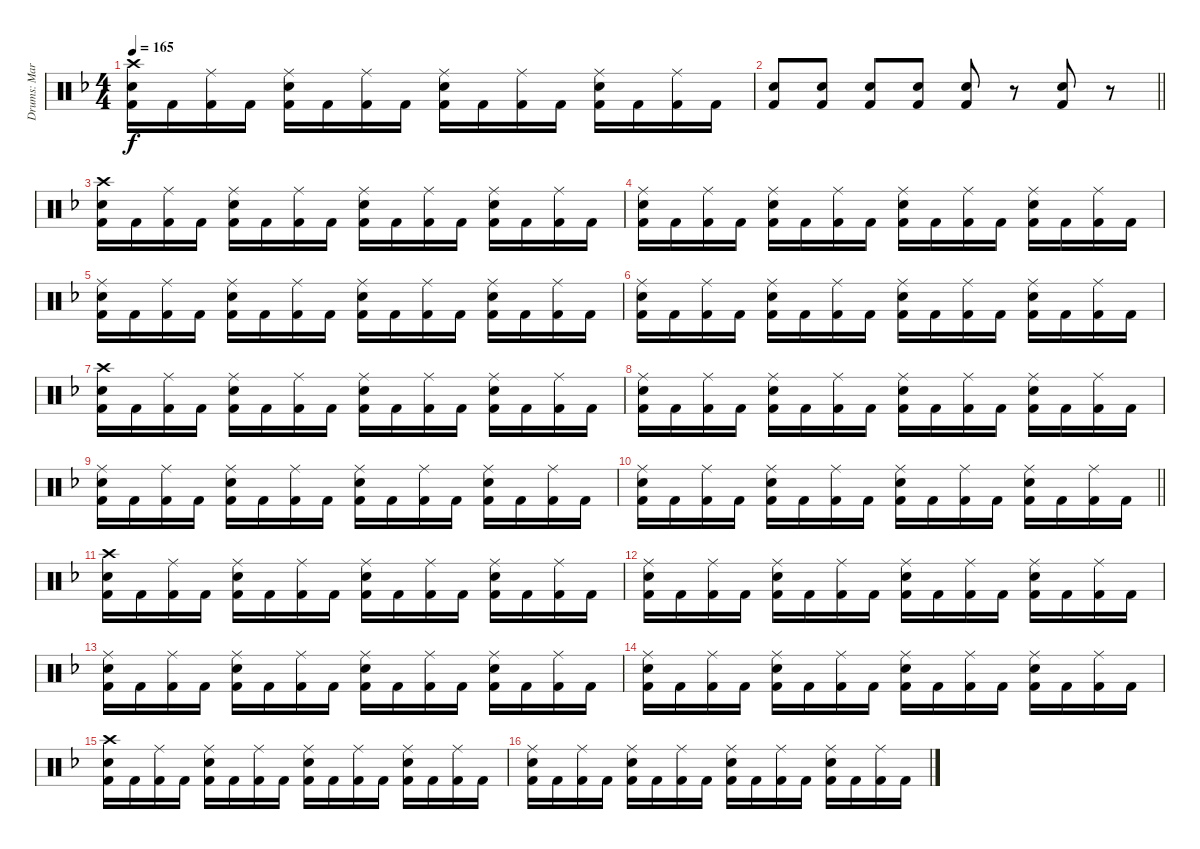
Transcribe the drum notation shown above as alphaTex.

\track ("Drums: Martin Herzinger" "Drums: Mar") {instrument percussion}
\staff {score}
\articulation defaults
\ts (4 4)
\tempo 165
\clef neutral
\ks dminor
("Crash high (hit)" "Snare (hit) 2" "Kick (hit) 2").16{dy f} "Kick (hit) 2".16 ("Ride (middle)" "Kick (hit) 2").16 "Kick (hit) 2".16 ("Ride (middle)" "Snare (hit) 2" "Kick (hit) 2").16 "Kick (hit) 2".16 ("Ride (middle)" "Kick (hit) 2").16 "Kick (hit) 2".16 ("Ride (middle)" "Snare (hit) 2" "Kick (hit) 2").16 "Kick (hit) 2".16 ("Ride (middle)" "Kick (hit) 2").16 "Kick (hit) 2".16 ("Ride (middle)" "Snare (hit) 2" "Kick (hit) 2").16 "Kick (hit) 2".16 ("Ride (middle)" "Kick (hit) 2").16 "Kick (hit) 2".16 |
\barLineRight lightlight
("Snare (hit) 2" "Kick (hit) 2").8 ("Snare (hit) 2" "Kick (hit) 2").8 ("Snare (hit) 2" "Kick (hit) 2").8 ("Snare (hit) 2" "Kick (hit) 2").8 ("Snare (hit) 2" "Kick (hit) 2").8 r.8 ("Snare (hit) 2" "Kick (hit) 2").8 r.8 |
("Crash high (hit)" "Snare (hit) 2" "Kick (hit) 2").16 "Kick (hit) 2".16 ("Ride (middle)" "Kick (hit) 2").16 "Kick (hit) 2".16 ("Ride (middle)" "Snare (hit) 2" "Kick (hit) 2").16 "Kick (hit) 2".16 ("Ride (middle)" "Kick (hit) 2").16 "Kick (hit) 2".16 ("Ride (middle)" "Snare (hit) 2" "Kick (hit) 2").16 "Kick (hit) 2".16 ("Ride (middle)" "Kick (hit) 2").16 "Kick (hit) 2".16 ("Ride (middle)" "Snare (hit) 2" "Kick (hit) 2").16 "Kick (hit) 2".16 ("Ride (middle)" "Kick (hit) 2").16 "Kick (hit) 2".16 |
("Ride (middle)" "Snare (hit) 2" "Kick (hit) 2").16 "Kick (hit) 2".16 ("Ride (middle)" "Kick (hit) 2").16 "Kick (hit) 2".16 ("Ride (middle)" "Snare (hit) 2" "Kick (hit) 2").16 "Kick (hit) 2".16 ("Ride (middle)" "Kick (hit) 2").16 "Kick (hit) 2".16 ("Ride (middle)" "Snare (hit) 2" "Kick (hit) 2").16 "Kick (hit) 2".16 ("Ride (middle)" "Kick (hit) 2").16 "Kick (hit) 2".16 ("Ride (middle)" "Snare (hit) 2" "Kick (hit) 2").16 "Kick (hit) 2".16 ("Ride (middle)" "Kick (hit) 2").16 "Kick (hit) 2".16 |
("Ride (middle)" "Snare (hit) 2" "Kick (hit) 2").16 "Kick (hit) 2".16 ("Ride (middle)" "Kick (hit) 2").16 "Kick (hit) 2".16 ("Ride (middle)" "Snare (hit) 2" "Kick (hit) 2").16 "Kick (hit) 2".16 ("Ride (middle)" "Kick (hit) 2").16 "Kick (hit) 2".16 ("Ride (middle)" "Snare (hit) 2" "Kick (hit) 2").16 "Kick (hit) 2".16 ("Ride (middle)" "Kick (hit) 2").16 "Kick (hit) 2".16 ("Ride (middle)" "Snare (hit) 2" "Kick (hit) 2").16 "Kick (hit) 2".16 ("Ride (middle)" "Kick (hit) 2").16 "Kick (hit) 2".16 |
("Ride (middle)" "Snare (hit) 2" "Kick (hit) 2").16 "Kick (hit) 2".16 ("Ride (middle)" "Kick (hit) 2").16 "Kick (hit) 2".16 ("Ride (middle)" "Snare (hit) 2" "Kick (hit) 2").16 "Kick (hit) 2".16 ("Ride (middle)" "Kick (hit) 2").16 "Kick (hit) 2".16 ("Ride (middle)" "Snare (hit) 2" "Kick (hit) 2").16 "Kick (hit) 2".16 ("Ride (middle)" "Kick (hit) 2").16 "Kick (hit) 2".16 ("Ride (middle)" "Snare (hit) 2" "Kick (hit) 2").16 "Kick (hit) 2".16 ("Ride (middle)" "Kick (hit) 2").16 "Kick (hit) 2".16 |
("Crash high (hit)" "Snare (hit) 2" "Kick (hit) 2").16 "Kick (hit) 2".16 ("Ride (middle)" "Kick (hit) 2").16 "Kick (hit) 2".16 ("Ride (middle)" "Snare (hit) 2" "Kick (hit) 2").16 "Kick (hit) 2".16 ("Ride (middle)" "Kick (hit) 2").16 "Kick (hit) 2".16 ("Ride (middle)" "Snare (hit) 2" "Kick (hit) 2").16 "Kick (hit) 2".16 ("Ride (middle)" "Kick (hit) 2").16 "Kick (hit) 2".16 ("Ride (middle)" "Snare (hit) 2" "Kick (hit) 2").16 "Kick (hit) 2".16 ("Ride (middle)" "Kick (hit) 2").16 "Kick (hit) 2".16 |
("Ride (middle)" "Snare (hit) 2" "Kick (hit) 2").16 "Kick (hit) 2".16 ("Ride (middle)" "Kick (hit) 2").16 "Kick (hit) 2".16 ("Ride (middle)" "Snare (hit) 2" "Kick (hit) 2").16 "Kick (hit) 2".16 ("Ride (middle)" "Kick (hit) 2").16 "Kick (hit) 2".16 ("Ride (middle)" "Snare (hit) 2" "Kick (hit) 2").16 "Kick (hit) 2".16 ("Ride (middle)" "Kick (hit) 2").16 "Kick (hit) 2".16 ("Ride (middle)" "Snare (hit) 2" "Kick (hit) 2").16 "Kick (hit) 2".16 ("Ride (middle)" "Kick (hit) 2").16 "Kick (hit) 2".16 |
("Ride (middle)" "Snare (hit) 2" "Kick (hit) 2").16 "Kick (hit) 2".16 ("Ride (middle)" "Kick (hit) 2").16 "Kick (hit) 2".16 ("Ride (middle)" "Snare (hit) 2" "Kick (hit) 2").16 "Kick (hit) 2".16 ("Ride (middle)" "Kick (hit) 2").16 "Kick (hit) 2".16 ("Ride (middle)" "Snare (hit) 2" "Kick (hit) 2").16 "Kick (hit) 2".16 ("Ride (middle)" "Kick (hit) 2").16 "Kick (hit) 2".16 ("Ride (middle)" "Snare (hit) 2" "Kick (hit) 2").16 "Kick (hit) 2".16 ("Ride (middle)" "Kick (hit) 2").16 "Kick (hit) 2".16 |
\barLineRight lightlight
("Ride (middle)" "Snare (hit) 2" "Kick (hit) 2").16 "Kick (hit) 2".16 ("Ride (middle)" "Kick (hit) 2").16 "Kick (hit) 2".16 ("Ride (middle)" "Snare (hit) 2" "Kick (hit) 2").16 "Kick (hit) 2".16 ("Ride (middle)" "Kick (hit) 2").16 "Kick (hit) 2".16 ("Ride (middle)" "Snare (hit) 2" "Kick (hit) 2").16 "Kick (hit) 2".16 ("Ride (middle)" "Kick (hit) 2").16 "Kick (hit) 2".16 ("Ride (middle)" "Snare (hit) 2" "Kick (hit) 2").16 "Kick (hit) 2".16 ("Ride (middle)" "Kick (hit) 2").16 "Kick (hit) 2".16 |
("Crash high (hit)" "Snare (hit) 2" "Kick (hit) 2").16 "Kick (hit) 2".16 ("Ride (middle)" "Kick (hit) 2").16 "Kick (hit) 2".16 ("Ride (middle)" "Snare (hit) 2" "Kick (hit) 2").16 "Kick (hit) 2".16 ("Ride (middle)" "Kick (hit) 2").16 "Kick (hit) 2".16 ("Ride (middle)" "Snare (hit) 2" "Kick (hit) 2").16 "Kick (hit) 2".16 ("Ride (middle)" "Kick (hit) 2").16 "Kick (hit) 2".16 ("Ride (middle)" "Snare (hit) 2" "Kick (hit) 2").16 "Kick (hit) 2".16 ("Ride (middle)" "Kick (hit) 2").16 "Kick (hit) 2".16 |
("Ride (middle)" "Snare (hit) 2" "Kick (hit) 2").16 "Kick (hit) 2".16 ("Ride (middle)" "Kick (hit) 2").16 "Kick (hit) 2".16 ("Ride (middle)" "Snare (hit) 2" "Kick (hit) 2").16 "Kick (hit) 2".16 ("Ride (middle)" "Kick (hit) 2").16 "Kick (hit) 2".16 ("Ride (middle)" "Snare (hit) 2" "Kick (hit) 2").16 "Kick (hit) 2".16 ("Ride (middle)" "Kick (hit) 2").16 "Kick (hit) 2".16 ("Ride (middle)" "Snare (hit) 2" "Kick (hit) 2").16 "Kick (hit) 2".16 ("Ride (middle)" "Kick (hit) 2").16 "Kick (hit) 2".16 |
("Ride (middle)" "Snare (hit) 2" "Kick (hit) 2").16 "Kick (hit) 2".16 ("Ride (middle)" "Kick (hit) 2").16 "Kick (hit) 2".16 ("Ride (middle)" "Snare (hit) 2" "Kick (hit) 2").16 "Kick (hit) 2".16 ("Ride (middle)" "Kick (hit) 2").16 "Kick (hit) 2".16 ("Ride (middle)" "Snare (hit) 2" "Kick (hit) 2").16 "Kick (hit) 2".16 ("Ride (middle)" "Kick (hit) 2").16 "Kick (hit) 2".16 ("Ride (middle)" "Snare (hit) 2" "Kick (hit) 2").16 "Kick (hit) 2".16 ("Ride (middle)" "Kick (hit) 2").16 "Kick (hit) 2".16 |
("Ride (middle)" "Snare (hit) 2" "Kick (hit) 2").16 "Kick (hit) 2".16 ("Ride (middle)" "Kick (hit) 2").16 "Kick (hit) 2".16 ("Ride (middle)" "Snare (hit) 2" "Kick (hit) 2").16 "Kick (hit) 2".16 ("Ride (middle)" "Kick (hit) 2").16 "Kick (hit) 2".16 ("Ride (middle)" "Snare (hit) 2" "Kick (hit) 2").16 "Kick (hit) 2".16 ("Ride (middle)" "Kick (hit) 2").16 "Kick (hit) 2".16 ("Ride (middle)" "Snare (hit) 2" "Kick (hit) 2").16 "Kick (hit) 2".16 ("Ride (middle)" "Kick (hit) 2").16 "Kick (hit) 2".16 |
("Crash high (hit)" "Snare (hit) 2" "Kick (hit) 2").16 "Kick (hit) 2".16 ("Ride (middle)" "Kick (hit) 2").16 "Kick (hit) 2".16 ("Ride (middle)" "Snare (hit) 2" "Kick (hit) 2").16 "Kick (hit) 2".16 ("Ride (middle)" "Kick (hit) 2").16 "Kick (hit) 2".16 ("Ride (middle)" "Snare (hit) 2" "Kick (hit) 2").16 "Kick (hit) 2".16 ("Ride (middle)" "Kick (hit) 2").16 "Kick (hit) 2".16 ("Ride (middle)" "Snare (hit) 2" "Kick (hit) 2").16 "Kick (hit) 2".16 ("Ride (middle)" "Kick (hit) 2").16 "Kick (hit) 2".16 |
("Ride (middle)" "Snare (hit) 2" "Kick (hit) 2").16 "Kick (hit) 2".16 ("Ride (middle)" "Kick (hit) 2").16 "Kick (hit) 2".16 ("Ride (middle)" "Snare (hit) 2" "Kick (hit) 2").16 "Kick (hit) 2".16 ("Ride (middle)" "Kick (hit) 2").16 "Kick (hit) 2".16 ("Ride (middle)" "Snare (hit) 2" "Kick (hit) 2").16 "Kick (hit) 2".16 ("Ride (middle)" "Kick (hit) 2").16 "Kick (hit) 2".16 ("Ride (middle)" "Snare (hit) 2" "Kick (hit) 2").16 "Kick (hit) 2".16 ("Ride (middle)" "Kick (hit) 2").16 "Kick (hit) 2".16
